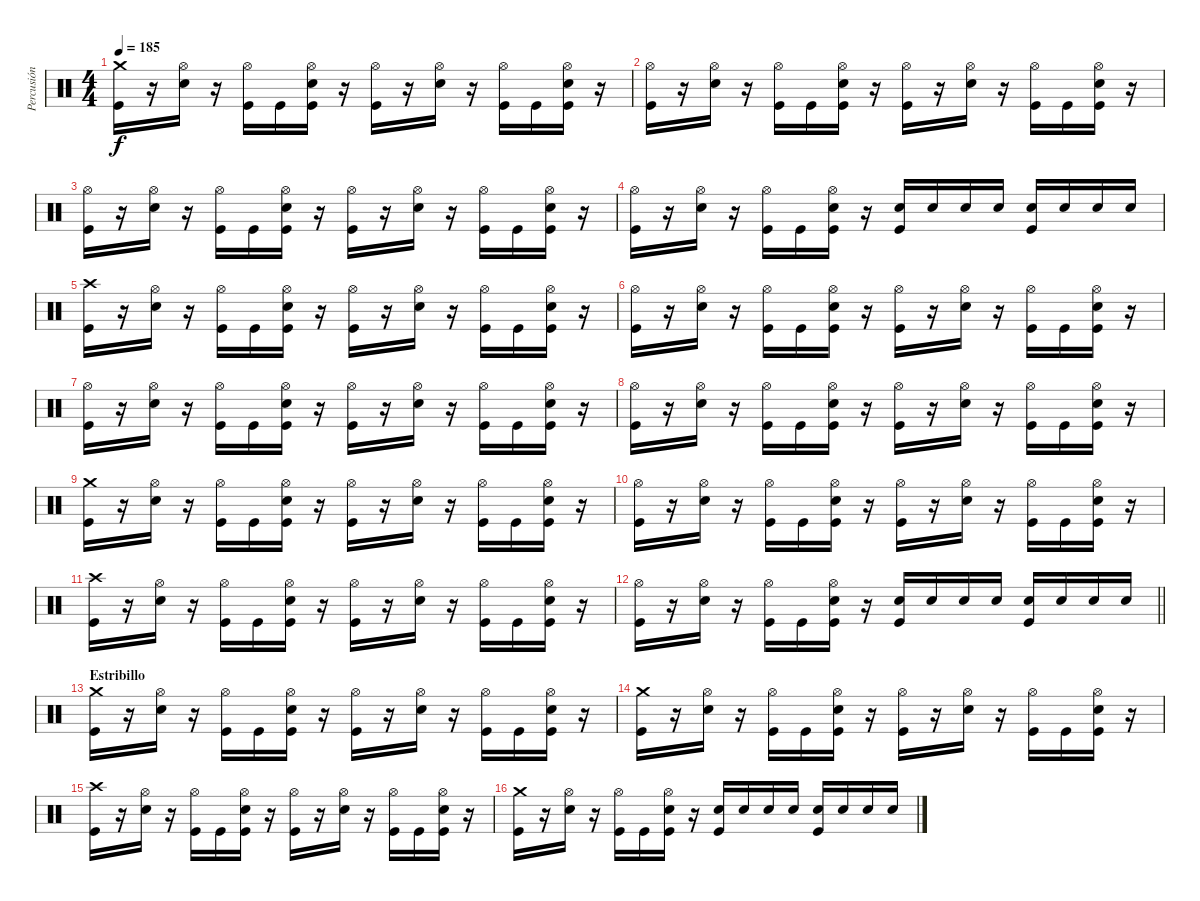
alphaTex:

\track ("Percusión" "Percusión") {instrument percussion}
\staff {score}
\articulation defaults
\ts (4 4)
\tempo 185
\clef neutral
\ks c
("Crash medium (hit)" "Kick (hit)").16{dy f} r.16 ("Hi-Hat (open)" "Electric Snare (hit)").16 r.16 ("Hi-Hat (open)" "Kick (hit)").16 "Kick (hit)".16 ("Hi-Hat (open)" "Electric Snare (hit)" "Kick (hit)").16 r.16 ("Hi-Hat (open)" "Kick (hit)").16 r.16 ("Hi-Hat (open)" "Electric Snare (hit)").16 r.16 ("Hi-Hat (open)" "Kick (hit)").16 "Kick (hit)".16 ("Hi-Hat (open)" "Electric Snare (hit)" "Kick (hit)").16 r.16 |
("Hi-Hat (open)" "Kick (hit)").16 r.16 ("Hi-Hat (open)" "Electric Snare (hit)").16 r.16 ("Hi-Hat (open)" "Kick (hit)").16 "Kick (hit)".16 ("Hi-Hat (open)" "Electric Snare (hit)" "Kick (hit)").16 r.16 ("Hi-Hat (open)" "Kick (hit)").16 r.16 ("Hi-Hat (open)" "Electric Snare (hit)").16 r.16 ("Hi-Hat (open)" "Kick (hit)").16 "Kick (hit)".16 ("Hi-Hat (open)" "Electric Snare (hit)" "Kick (hit)").16 r.16 |
("Hi-Hat (open)" "Kick (hit)").16 r.16 ("Hi-Hat (open)" "Electric Snare (hit)").16 r.16 ("Hi-Hat (open)" "Kick (hit)").16 "Kick (hit)".16 ("Hi-Hat (open)" "Electric Snare (hit)" "Kick (hit)").16 r.16 ("Hi-Hat (open)" "Kick (hit)").16 r.16 ("Hi-Hat (open)" "Electric Snare (hit)").16 r.16 ("Hi-Hat (open)" "Kick (hit)").16 "Kick (hit)".16 ("Hi-Hat (open)" "Electric Snare (hit)" "Kick (hit)").16 r.16 |
("Hi-Hat (open)" "Kick (hit)").16 r.16 ("Hi-Hat (open)" "Electric Snare (hit)").16 r.16 ("Hi-Hat (open)" "Kick (hit)").16 "Kick (hit)".16 ("Hi-Hat (open)" "Electric Snare (hit)" "Kick (hit)").16 r.16 ("Electric Snare (hit)" "Kick (hit)").16 "Electric Snare (hit)".16 "Electric Snare (hit)".16 "Electric Snare (hit)".16 ("Electric Snare (hit)" "Kick (hit)").16 "Electric Snare (hit)".16 "Electric Snare (hit)".16 "Electric Snare (hit)".16 |
("Crash high (hit)" "Kick (hit)").16 r.16 ("Hi-Hat (open)" "Electric Snare (hit)").16 r.16 ("Hi-Hat (open)" "Kick (hit)").16 "Kick (hit)".16 ("Hi-Hat (open)" "Electric Snare (hit)" "Kick (hit)").16 r.16 ("Hi-Hat (open)" "Kick (hit)").16 r.16 ("Hi-Hat (open)" "Electric Snare (hit)").16 r.16 ("Hi-Hat (open)" "Kick (hit)").16 "Kick (hit)".16 ("Hi-Hat (open)" "Electric Snare (hit)" "Kick (hit)").16 r.16 |
("Hi-Hat (open)" "Kick (hit)").16 r.16 ("Hi-Hat (open)" "Electric Snare (hit)").16 r.16 ("Hi-Hat (open)" "Kick (hit)").16 "Kick (hit)".16 ("Hi-Hat (open)" "Electric Snare (hit)" "Kick (hit)").16 r.16 ("Hi-Hat (open)" "Kick (hit)").16 r.16 ("Hi-Hat (open)" "Electric Snare (hit)").16 r.16 ("Hi-Hat (open)" "Kick (hit)").16 "Kick (hit)".16 ("Hi-Hat (open)" "Electric Snare (hit)" "Kick (hit)").16 r.16 |
("Hi-Hat (open)" "Kick (hit)").16 r.16 ("Hi-Hat (open)" "Electric Snare (hit)").16 r.16 ("Hi-Hat (open)" "Kick (hit)").16 "Kick (hit)".16 ("Hi-Hat (open)" "Electric Snare (hit)" "Kick (hit)").16 r.16 ("Hi-Hat (open)" "Kick (hit)").16 r.16 ("Hi-Hat (open)" "Electric Snare (hit)").16 r.16 ("Hi-Hat (open)" "Kick (hit)").16 "Kick (hit)".16 ("Hi-Hat (open)" "Electric Snare (hit)" "Kick (hit)").16 r.16 |
("Hi-Hat (open)" "Kick (hit)").16 r.16 ("Hi-Hat (open)" "Electric Snare (hit)").16 r.16 ("Hi-Hat (open)" "Kick (hit)").16 "Kick (hit)".16 ("Hi-Hat (open)" "Electric Snare (hit)" "Kick (hit)").16 r.16 ("Hi-Hat (open)" "Kick (hit)").16 r.16 ("Hi-Hat (open)" "Electric Snare (hit)").16 r.16 ("Hi-Hat (open)" "Kick (hit)").16 "Kick (hit)".16 ("Hi-Hat (open)" "Electric Snare (hit)" "Kick (hit)").16 r.16 |
("Crash medium (hit)" "Kick (hit)").16 r.16 ("Hi-Hat (open)" "Electric Snare (hit)").16 r.16 ("Hi-Hat (open)" "Kick (hit)").16 "Kick (hit)".16 ("Hi-Hat (open)" "Electric Snare (hit)" "Kick (hit)").16 r.16 ("Hi-Hat (open)" "Kick (hit)").16 r.16 ("Hi-Hat (open)" "Electric Snare (hit)").16 r.16 ("Hi-Hat (open)" "Kick (hit)").16 "Kick (hit)".16 ("Hi-Hat (open)" "Electric Snare (hit)" "Kick (hit)").16 r.16 |
("Hi-Hat (open)" "Kick (hit)").16 r.16 ("Hi-Hat (open)" "Electric Snare (hit)").16 r.16 ("Hi-Hat (open)" "Kick (hit)").16 "Kick (hit)".16 ("Hi-Hat (open)" "Electric Snare (hit)" "Kick (hit)").16 r.16 ("Hi-Hat (open)" "Kick (hit)").16 r.16 ("Hi-Hat (open)" "Electric Snare (hit)").16 r.16 ("Hi-Hat (open)" "Kick (hit)").16 "Kick (hit)".16 ("Hi-Hat (open)" "Electric Snare (hit)" "Kick (hit)").16 r.16 |
("Crash high (hit)" "Kick (hit)").16 r.16 ("Hi-Hat (open)" "Electric Snare (hit)").16 r.16 ("Hi-Hat (open)" "Kick (hit)").16 "Kick (hit)".16 ("Hi-Hat (open)" "Electric Snare (hit)" "Kick (hit)").16 r.16 ("Hi-Hat (open)" "Kick (hit)").16 r.16 ("Hi-Hat (open)" "Electric Snare (hit)").16 r.16 ("Hi-Hat (open)" "Kick (hit)").16 "Kick (hit)".16 ("Hi-Hat (open)" "Electric Snare (hit)" "Kick (hit)").16 r.16 |
\barLineRight lightlight
("Hi-Hat (open)" "Kick (hit)").16 r.16 ("Hi-Hat (open)" "Electric Snare (hit)").16 r.16 ("Hi-Hat (open)" "Kick (hit)").16 "Kick (hit)".16 ("Hi-Hat (open)" "Electric Snare (hit)" "Kick (hit)").16 r.16 ("Electric Snare (hit)" "Kick (hit)").16 "Electric Snare (hit)".16 "Electric Snare (hit)".16 "Electric Snare (hit)".16 ("Electric Snare (hit)" "Kick (hit)").16 "Electric Snare (hit)".16 "Electric Snare (hit)".16 "Electric Snare (hit)".16 |
\section ("" "Estribillo")
("Crash medium (hit)" "Kick (hit)").16 r.16 ("Hi-Hat (open)" "Electric Snare (hit)").16 r.16 ("Hi-Hat (open)" "Kick (hit)").16 "Kick (hit)".16 ("Hi-Hat (open)" "Electric Snare (hit)" "Kick (hit)").16 r.16 ("Hi-Hat (open)" "Kick (hit)").16 r.16 ("Hi-Hat (open)" "Electric Snare (hit)").16 r.16 ("Hi-Hat (open)" "Kick (hit)").16 "Kick (hit)".16 ("Hi-Hat (open)" "Electric Snare (hit)" "Kick (hit)").16 r.16 |
("Crash medium (hit)" "Kick (hit)").16 r.16 ("Hi-Hat (open)" "Electric Snare (hit)").16 r.16 ("Hi-Hat (open)" "Kick (hit)").16 "Kick (hit)".16 ("Hi-Hat (open)" "Electric Snare (hit)" "Kick (hit)").16 r.16 ("Hi-Hat (open)" "Kick (hit)").16 r.16 ("Hi-Hat (open)" "Electric Snare (hit)").16 r.16 ("Hi-Hat (open)" "Kick (hit)").16 "Kick (hit)".16 ("Hi-Hat (open)" "Electric Snare (hit)" "Kick (hit)").16 r.16 |
("Crash high (hit)" "Kick (hit)").16 r.16 ("Hi-Hat (open)" "Electric Snare (hit)").16 r.16 ("Hi-Hat (open)" "Kick (hit)").16 "Kick (hit)".16 ("Hi-Hat (open)" "Electric Snare (hit)" "Kick (hit)").16 r.16 ("Hi-Hat (open)" "Kick (hit)").16 r.16 ("Hi-Hat (open)" "Electric Snare (hit)").16 r.16 ("Hi-Hat (open)" "Kick (hit)").16 "Kick (hit)".16 ("Hi-Hat (open)" "Electric Snare (hit)" "Kick (hit)").16 r.16 |
("Crash medium (hit)" "Kick (hit)").16 r.16 ("Hi-Hat (open)" "Electric Snare (hit)").16 r.16 ("Hi-Hat (open)" "Kick (hit)").16 "Kick (hit)".16 ("Hi-Hat (open)" "Electric Snare (hit)" "Kick (hit)").16 r.16 ("Electric Snare (hit)" "Kick (hit)").16 "Electric Snare (hit)".16 "Electric Snare (hit)".16 "Electric Snare (hit)".16 ("Electric Snare (hit)" "Kick (hit)").16 "Electric Snare (hit)".16 "Electric Snare (hit)".16 "Electric Snare (hit)".16
